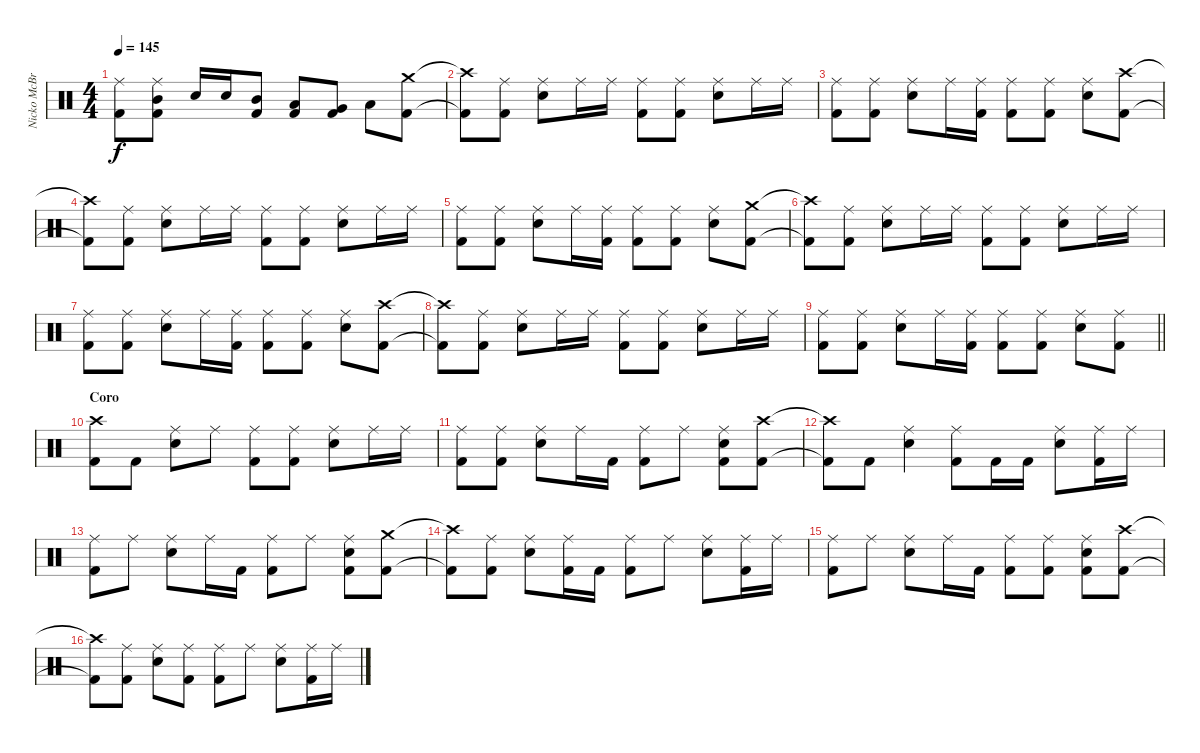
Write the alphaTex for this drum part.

\track ("Nicko McBrain" "Nicko McBr") {instrument percussion}
\staff {score}
\articulation defaults
\ts (4 4)
\tempo 145
\clef neutral
\ks c
("Ride (middle)" "Kick (hit) 2").8{dy f} ("Ride (middle)" "Mid Tom (hit)" "Kick (hit) 2").8 "Snare (hit) 2".16 "Snare (hit) 2".16 ("Mid Tom (hit)" "Kick (hit) 2").8 ("Low Tom (hit)" "Kick (hit) 2").8 ("Very Low Tom (hit)" "Kick (hit) 2").8 "Low Floor Tom (hit)".8 ("Crash medium (hit)" "Kick (hit) 2").8 |
("Crash high (hit)"{t} "Kick (hit) 2"{t}).8 ("Ride (middle)" "Kick (hit) 2").8 ("Ride (middle)" "Snare (hit) 2").8 "Ride (middle)".16 "Ride (middle)".16 ("Ride (middle)" "Kick (hit) 2").8 ("Ride (middle)" "Kick (hit) 2").8 ("Ride (middle)" "Snare (hit) 2").8 "Ride (middle)".16 "Ride (middle)".16 |
("Ride (middle)" "Kick (hit) 2").8 ("Ride (middle)" "Kick (hit) 2").8 ("Ride (middle)" "Snare (hit) 2").8 "Ride (middle)".16 ("Ride (middle)" "Kick (hit) 2").16 ("Ride (middle)" "Kick (hit) 2").8 ("Ride (middle)" "Kick (hit) 2").8 ("Ride (middle)" "Snare (hit) 2").8 ("Crash high (hit)" "Kick (hit) 2").8 |
("Crash high (hit)"{t} "Kick (hit) 2"{t}).8 ("Ride (middle)" "Kick (hit) 2").8 ("Ride (middle)" "Snare (hit) 2").8 "Ride (middle)".16 "Ride (middle)".16 ("Ride (middle)" "Kick (hit) 2").8 ("Ride (middle)" "Kick (hit) 2").8 ("Ride (middle)" "Snare (hit) 2").8 "Ride (middle)".16 "Ride (middle)".16 |
("Ride (middle)" "Kick (hit) 2").8 ("Ride (middle)" "Kick (hit) 2").8 ("Ride (middle)" "Snare (hit) 2").8 "Ride (middle)".16 ("Ride (middle)" "Kick (hit) 2").16 ("Ride (middle)" "Kick (hit) 2").8 ("Ride (middle)" "Kick (hit) 2").8 ("Ride (middle)" "Snare (hit) 2").8 ("Crash medium (hit)" "Kick (hit) 2").8 |
("Crash high (hit)"{t} "Kick (hit) 2"{t}).8 ("Ride (middle)" "Kick (hit) 2").8 ("Ride (middle)" "Snare (hit) 2").8 "Ride (middle)".16 "Ride (middle)".16 ("Ride (middle)" "Kick (hit) 2").8 ("Ride (middle)" "Kick (hit) 2").8 ("Ride (middle)" "Snare (hit) 2").8 "Ride (middle)".16 "Ride (middle)".16 |
("Ride (middle)" "Kick (hit) 2").8 ("Ride (middle)" "Kick (hit) 2").8 ("Ride (middle)" "Snare (hit) 2").8 "Ride (middle)".16 ("Ride (middle)" "Kick (hit) 2").16 ("Ride (middle)" "Kick (hit) 2").8 ("Ride (middle)" "Kick (hit) 2").8 ("Ride (middle)" "Snare (hit) 2").8 ("Crash high (hit)" "Kick (hit) 2").8 |
("Crash high (hit)"{t} "Kick (hit) 2"{t}).8 ("Ride (middle)" "Kick (hit) 2").8 ("Ride (middle)" "Snare (hit) 2").8 "Ride (middle)".16 "Ride (middle)".16 ("Ride (middle)" "Kick (hit) 2").8 ("Ride (middle)" "Kick (hit) 2").8 ("Ride (middle)" "Snare (hit) 2").8 "Ride (middle)".16 "Ride (middle)".16 |
\barLineRight lightlight
("Ride (middle)" "Kick (hit) 2").8 ("Ride (middle)" "Kick (hit) 2").8 ("Ride (middle)" "Snare (hit) 2").8 "Ride (middle)".16 ("Ride (middle)" "Kick (hit) 2").16 ("Ride (middle)" "Kick (hit) 2").8 ("Ride (middle)" "Kick (hit) 2").8 ("Ride (middle)" "Snare (hit) 2").8 ("Ride (middle)" "Kick (hit) 2").8 |
\section ("" "Coro")
("Crash high (hit)" "Kick (hit) 2").8 "Kick (hit) 2".8 ("Ride (middle)" "Snare (hit) 2").8 "Ride (middle)".8 ("Ride (middle)" "Kick (hit) 2").8 ("Ride (middle)" "Kick (hit) 2").8 ("Ride (middle)" "Snare (hit) 2").8 "Ride (middle)".16 "Ride (middle)".16 |
("Ride (middle)" "Kick (hit) 2").8 ("Ride (middle)" "Kick (hit) 2").8 ("Ride (middle)" "Snare (hit) 2").8 "Ride (middle)".16 "Kick (hit) 2".16 ("Ride (middle)" "Kick (hit) 2").8 "Ride (middle)".8 ("Ride (middle)" "Snare (hit) 2" "Kick (hit) 2").8 ("Crash high (hit)" "Kick (hit) 2").8 |
("Crash high (hit)"{t} "Kick (hit) 2"{t}).8 "Kick (hit) 2".8 ("Ride (middle)" "Snare (hit) 2").4 ("Ride (middle)" "Kick (hit) 2").8 "Kick (hit) 2".16 "Kick (hit) 2".16 ("Ride (middle)" "Snare (hit) 2").8 ("Ride (middle)" "Kick (hit) 2").16 "Ride (middle)".16 |
("Ride (middle)" "Kick (hit) 2").8 "Ride (middle)".8 ("Ride (middle)" "Snare (hit) 2").8 "Ride (middle)".16 "Kick (hit) 2".16 ("Ride (middle)" "Kick (hit) 2").8 "Ride (middle)".8 ("Ride (middle)" "Snare (hit) 2" "Kick (hit) 2").8 ("Crash medium (hit)" "Kick (hit) 2").8 |
("Crash high (hit)"{t} "Kick (hit) 2"{t}).8 ("Ride (middle)" "Kick (hit) 2").8 ("Ride (middle)" "Snare (hit) 2").8 ("Ride (middle)" "Kick (hit) 2").16 "Kick (hit) 2".16 ("Ride (middle)" "Kick (hit) 2").8 "Ride (middle)".8 ("Ride (middle)" "Snare (hit) 2").8 ("Ride (middle)" "Kick (hit) 2").16 "Ride (middle)".16 |
("Ride (middle)" "Kick (hit) 2").8 "Ride (middle)".8 ("Ride (middle)" "Snare (hit) 2").8 "Ride (middle)".16 "Kick (hit) 2".16 ("Ride (middle)" "Kick (hit) 2").8 ("Ride (middle)" "Kick (hit) 2").8 ("Ride (middle)" "Snare (hit) 2" "Kick (hit) 2").8 ("Crash high (hit)" "Kick (hit) 2").8 |
("Crash high (hit)"{t} "Kick (hit) 2"{t}).8 ("Ride (middle)" "Kick (hit) 2").8 ("Ride (middle)" "Snare (hit) 2").8 ("Ride (middle)" "Kick (hit) 2").8 ("Ride (middle)" "Kick (hit) 2").8 "Ride (middle)".8 ("Ride (middle)" "Snare (hit) 2").8 ("Ride (middle)" "Kick (hit) 2").16 "Ride (middle)".16
